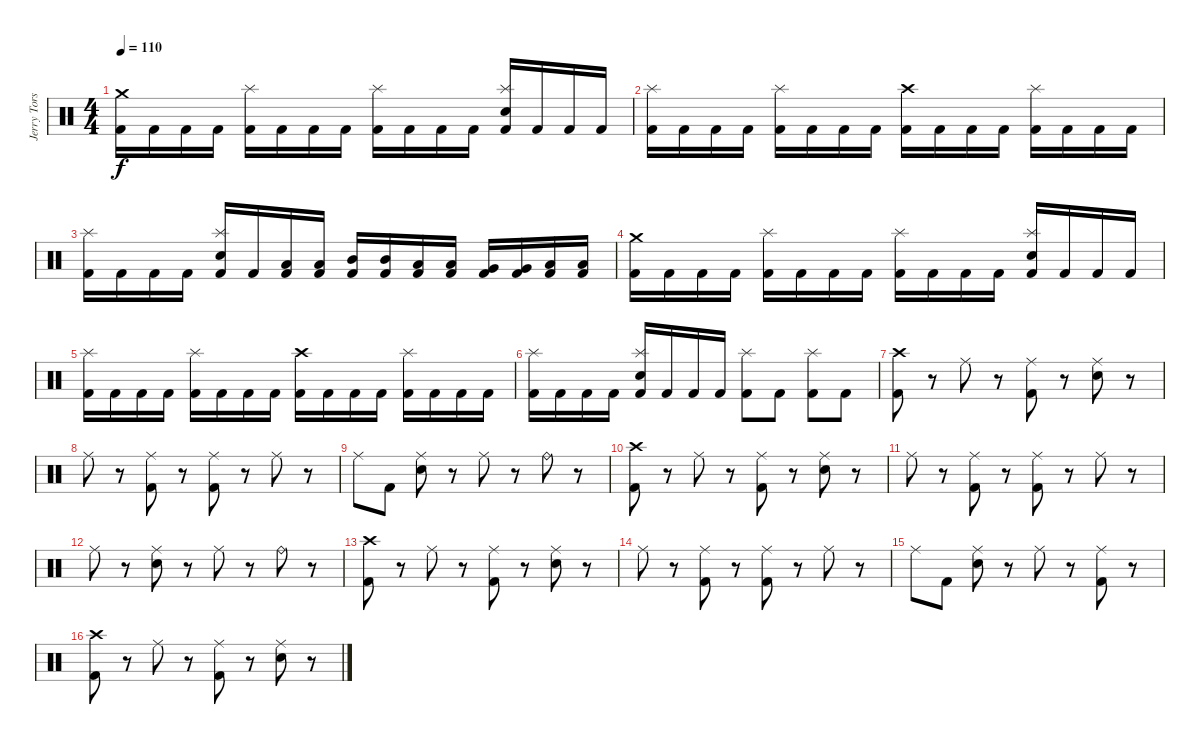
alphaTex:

\track ("Jerry Torstensson" "Jerry Tors") {instrument percussion}
\staff {score}
\articulation defaults
\ts (4 4)
\tempo 110
\clef neutral
\ks c
("Crash medium (hit)" "Kick (hit) 2").16{dy f} "Kick (hit) 2".16 "Kick (hit) 2".16 "Kick (hit) 2".16 ("Splash (hit)" "Kick (hit) 2").16 "Kick (hit) 2".16 "Kick (hit) 2".16 "Kick (hit) 2".16 ("Splash (hit)" "Kick (hit) 2").16 "Kick (hit) 2".16 "Kick (hit) 2".16 "Kick (hit) 2".16 ("Splash (hit)" "Electric Snare (hit)" "Kick (hit) 2").16 "Kick (hit) 2".16 "Kick (hit) 2".16 "Kick (hit) 2".16 |
("Splash (hit)" "Kick (hit) 2").16 "Kick (hit) 2".16 "Kick (hit) 2".16 "Kick (hit) 2".16 ("Splash (hit)" "Kick (hit) 2").16 "Kick (hit) 2".16 "Kick (hit) 2".16 "Kick (hit) 2".16 ("Crash high (hit)" "Kick (hit) 2").16 "Kick (hit) 2".16 "Kick (hit) 2".16 "Kick (hit) 2".16 ("Splash (hit)" "Kick (hit) 2").16 "Kick (hit) 2".16 "Kick (hit) 2".16 "Kick (hit) 2".16 |
("Splash (hit)" "Kick (hit) 2").16 "Kick (hit) 2".16 "Kick (hit) 2".16 "Kick (hit) 2".16 ("Splash (hit)" "Electric Snare (hit)" "Kick (hit) 2").16 "Kick (hit) 2".16 ("Low Tom (hit)" "Kick (hit) 2").16 ("Low Tom (hit)" "Kick (hit) 2").16 ("Mid Tom (hit)" "Kick (hit) 2").16 ("Mid Tom (hit)" "Kick (hit) 2").16 ("Low Tom (hit)" "Kick (hit) 2").16 ("Low Tom (hit)" "Kick (hit) 2").16 ("Very Low Tom (hit)" "Kick (hit) 2").16 ("Very Low Tom (hit)" "Kick (hit) 2").16 ("Low Floor Tom (hit)" "Kick (hit) 2").16 ("Low Floor Tom (hit)" "Kick (hit) 2").16 |
("Crash medium (hit)" "Kick (hit) 2").16 "Kick (hit) 2".16 "Kick (hit) 2".16 "Kick (hit) 2".16 ("Splash (hit)" "Kick (hit) 2").16 "Kick (hit) 2".16 "Kick (hit) 2".16 "Kick (hit) 2".16 ("Splash (hit)" "Kick (hit) 2").16 "Kick (hit) 2".16 "Kick (hit) 2".16 "Kick (hit) 2".16 ("Splash (hit)" "Electric Snare (hit)" "Kick (hit) 2").16 "Kick (hit) 2".16 "Kick (hit) 2".16 "Kick (hit) 2".16 |
("Splash (hit)" "Kick (hit) 2").16 "Kick (hit) 2".16 "Kick (hit) 2".16 "Kick (hit) 2".16 ("Splash (hit)" "Kick (hit) 2").16 "Kick (hit) 2".16 "Kick (hit) 2".16 "Kick (hit) 2".16 ("Crash high (hit)" "Kick (hit) 2").16 "Kick (hit) 2".16 "Kick (hit) 2".16 "Kick (hit) 2".16 ("Splash (hit)" "Kick (hit) 2").16 "Kick (hit) 2".16 "Kick (hit) 2".16 "Kick (hit) 2".16 |
("Splash (hit)" "Kick (hit) 2").16 "Kick (hit) 2".16 "Kick (hit) 2".16 "Kick (hit) 2".16 ("Splash (hit)" "Electric Snare (hit)" "Kick (hit) 2").16 "Kick (hit) 2".16 "Kick (hit) 2".16 "Kick (hit) 2".16 ("Splash (hit)" "Kick (hit) 2").8 "Kick (hit) 2".8 ("Splash (hit)" "Kick (hit) 2").8 "Kick (hit) 2".8 |
("Crash high (hit)" "Kick (hit) 2").8 r.8 "Ride (middle)".8 r.8 ("Ride (middle)" "Kick (hit) 2").8 r.8 ("Ride (middle)" "Electric Snare (hit)").8 r.8 |
"Ride (middle)".8 r.8 ("Ride (middle)" "Kick (hit) 2").8 r.8 ("Ride (middle)" "Kick (hit) 2").8 r.8 "Ride (middle)".8 r.8 |
"Ride (middle)".8 "Kick (hit) 2".8 ("Ride (middle)" "Electric Snare (hit)").8 r.8 "Ride (middle)".8 r.8 "Ride (bell)".8 r.8 |
("Crash high (hit)" "Kick (hit) 2").8 r.8 "Ride (middle)".8 r.8 ("Ride (middle)" "Kick (hit) 2").8 r.8 ("Ride (middle)" "Electric Snare (hit)").8 r.8 |
"Ride (middle)".8 r.8 ("Ride (middle)" "Kick (hit) 2").8 r.8 ("Ride (middle)" "Kick (hit) 2").8 r.8 "Ride (middle)".8 r.8 |
"Ride (middle)".8 r.8 ("Ride (middle)" "Electric Snare (hit)").8 r.8 "Ride (middle)".8 r.8 "Ride (bell)".8 r.8 |
("Crash high (hit)" "Kick (hit) 2").8 r.8 "Ride (middle)".8 r.8 ("Ride (middle)" "Kick (hit) 2").8 r.8 ("Ride (middle)" "Electric Snare (hit)").8 r.8 |
"Ride (middle)".8 r.8 ("Ride (middle)" "Kick (hit) 2").8 r.8 ("Ride (middle)" "Kick (hit) 2").8 r.8 "Ride (middle)".8 r.8 |
"Ride (middle)".8 "Kick (hit) 2".8 ("Ride (middle)" "Electric Snare (hit)").8 r.8 "Ride (middle)".8 r.8 ("Ride (middle)" "Kick (hit) 2").8 r.8 |
("Crash high (hit)" "Kick (hit) 2").8 r.8 "Ride (middle)".8 r.8 ("Ride (middle)" "Kick (hit) 2").8 r.8 ("Ride (middle)" "Electric Snare (hit)").8 r.8
